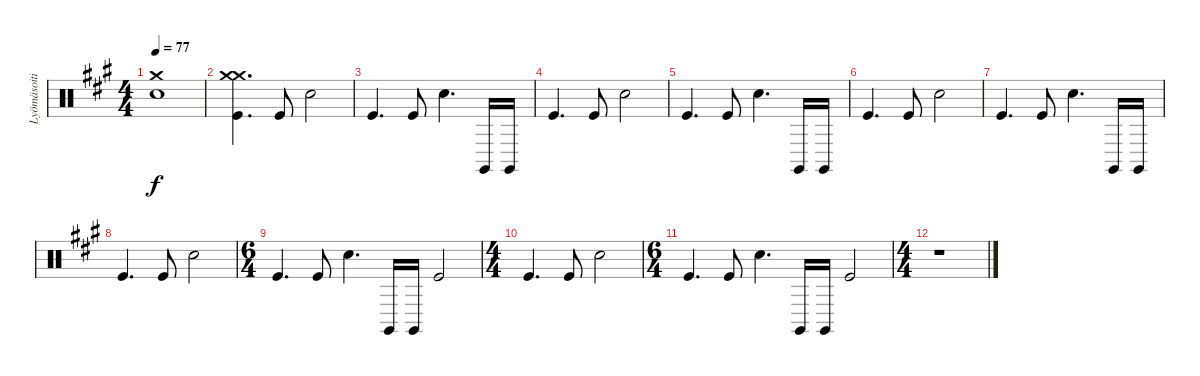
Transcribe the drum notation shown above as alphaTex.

\track ("Lyömäsoitin" "Lyömäsoiti") {instrument percussion}
\staff {score}
\articulation defaults
\ts (4 4)
\tempo 77
\clef neutral
\ks f#minor
("Crash medium (hit)" "Snare (hit) 2").1{dy f} |
("Kick (hit)" "Crash medium (hit)" "Crash medium (hit)").4{d} "Kick (hit)".8 "Snare (hit) 2".2 |
"Kick (hit)".4{d} "Kick (hit)".8 "Snare (hit) 2".4{d} "Claves (hit)".16 "Claves (hit)".16 |
"Kick (hit)".4{d} "Kick (hit)".8 "Snare (hit) 2".2 |
"Kick (hit)".4{d} "Kick (hit)".8 "Snare (hit) 2".4{d} "Claves (hit)".16 "Claves (hit)".16 |
"Kick (hit)".4{d} "Kick (hit)".8 "Snare (hit) 2".2 |
"Kick (hit)".4{d} "Kick (hit)".8 "Snare (hit) 2".4{d} "Claves (hit)".16 "Claves (hit)".16 |
"Kick (hit)".4{d} "Kick (hit)".8 "Snare (hit) 2".2 |
\ts (6 4)
"Kick (hit)".4{d} "Kick (hit)".8 "Snare (hit) 2".4{d} "Claves (hit)".16 "Claves (hit)".16 "Kick (hit)".2 |
\ts (4 4)
"Kick (hit)".4{d} "Kick (hit)".8 "Snare (hit) 2".2 |
\ts (6 4)
"Kick (hit)".4{d} "Kick (hit)".8 "Snare (hit) 2".4{d} "Claves (hit)".16 "Claves (hit)".16 "Kick (hit)".2 |
\ts (4 4)
r.1
